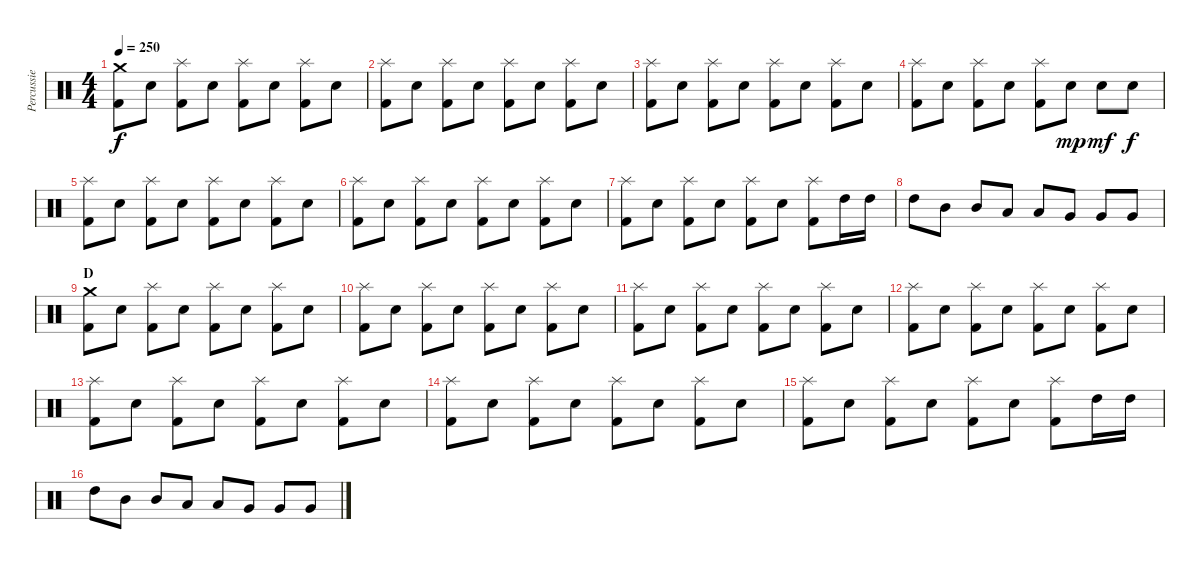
\track ("Percussie" "Percussie") {instrument percussion}
\staff {score}
\articulation defaults
\ts (4 4)
\tempo 250
\clef neutral
\ks c
("Crash medium (hit)" "Kick (hit) 2").8{dy f} "Electric Snare (hit)".8 ("Splash (hit)" "Kick (hit) 2").8 "Electric Snare (hit)".8 ("Splash (hit)" "Kick (hit) 2").8 "Electric Snare (hit)".8 ("Splash (hit)" "Kick (hit) 2").8 "Electric Snare (hit)".8 |
("Splash (hit)" "Kick (hit) 2").8 "Electric Snare (hit)".8 ("Splash (hit)" "Kick (hit) 2").8 "Electric Snare (hit)".8 ("Splash (hit)" "Kick (hit) 2").8 "Electric Snare (hit)".8 ("Splash (hit)" "Kick (hit) 2").8 "Electric Snare (hit)".8 |
("Splash (hit)" "Kick (hit) 2").8 "Electric Snare (hit)".8 ("Splash (hit)" "Kick (hit) 2").8 "Electric Snare (hit)".8 ("Splash (hit)" "Kick (hit) 2").8 "Electric Snare (hit)".8 ("Splash (hit)" "Kick (hit) 2").8 "Electric Snare (hit)".8 |
("Splash (hit)" "Kick (hit) 2").8 "Electric Snare (hit)".8 ("Splash (hit)" "Kick (hit) 2").8 "Electric Snare (hit)".8 ("Splash (hit)" "Kick (hit) 2").8 "Electric Snare (hit)".8{dy mp} "Electric Snare (hit)".8{dy mf} "Electric Snare (hit)".8{dy f} |
("Splash (hit)" "Kick (hit) 2").8 "Electric Snare (hit)".8 ("Splash (hit)" "Kick (hit) 2").8 "Electric Snare (hit)".8 ("Splash (hit)" "Kick (hit) 2").8 "Electric Snare (hit)".8 ("Splash (hit)" "Kick (hit) 2").8 "Electric Snare (hit)".8 |
("Splash (hit)" "Kick (hit) 2").8 "Electric Snare (hit)".8 ("Splash (hit)" "Kick (hit) 2").8 "Electric Snare (hit)".8 ("Splash (hit)" "Kick (hit) 2").8 "Electric Snare (hit)".8 ("Splash (hit)" "Kick (hit) 2").8 "Electric Snare (hit)".8 |
("Splash (hit)" "Kick (hit) 2").8 "Electric Snare (hit)".8 ("Splash (hit)" "Kick (hit) 2").8 "Electric Snare (hit)".8 ("Splash (hit)" "Kick (hit) 2").8 "Electric Snare (hit)".8 ("Splash (hit)" "Kick (hit) 2").8 "High Tom (hit)".16 "High Tom (hit)".16 |
"High Tom (hit)".8 "Mid Tom (hit)".8 "Mid Tom (hit)".8 "Low Tom (hit)".8 "Low Tom (hit)".8 "Very Low Tom (hit)".8 "Very Low Tom (hit)".8 "Very Low Tom (hit)".8 |
\section ("" "D")
("Crash medium (hit)" "Kick (hit) 2").8 "Electric Snare (hit)".8 ("Splash (hit)" "Kick (hit) 2").8 "Electric Snare (hit)".8 ("Splash (hit)" "Kick (hit) 2").8 "Electric Snare (hit)".8 ("Splash (hit)" "Kick (hit) 2").8 "Electric Snare (hit)".8 |
("Splash (hit)" "Kick (hit) 2").8 "Electric Snare (hit)".8 ("Splash (hit)" "Kick (hit) 2").8 "Electric Snare (hit)".8 ("Splash (hit)" "Kick (hit) 2").8 "Electric Snare (hit)".8 ("Splash (hit)" "Kick (hit) 2").8 "Electric Snare (hit)".8 |
("Splash (hit)" "Kick (hit) 2").8 "Electric Snare (hit)".8 ("Splash (hit)" "Kick (hit) 2").8 "Electric Snare (hit)".8 ("Splash (hit)" "Kick (hit) 2").8 "Electric Snare (hit)".8 ("Splash (hit)" "Kick (hit) 2").8 "Electric Snare (hit)".8 |
("Splash (hit)" "Kick (hit) 2").8 "Electric Snare (hit)".8 ("Splash (hit)" "Kick (hit) 2").8 "Electric Snare (hit)".8 ("Splash (hit)" "Kick (hit) 2").8 "Electric Snare (hit)".8 ("Splash (hit)" "Kick (hit) 2").8 "Electric Snare (hit)".8 |
("Splash (hit)" "Kick (hit) 2").8 "Electric Snare (hit)".8 ("Splash (hit)" "Kick (hit) 2").8 "Electric Snare (hit)".8 ("Splash (hit)" "Kick (hit) 2").8 "Electric Snare (hit)".8 ("Splash (hit)" "Kick (hit) 2").8 "Electric Snare (hit)".8 |
("Splash (hit)" "Kick (hit) 2").8 "Electric Snare (hit)".8 ("Splash (hit)" "Kick (hit) 2").8 "Electric Snare (hit)".8 ("Splash (hit)" "Kick (hit) 2").8 "Electric Snare (hit)".8 ("Splash (hit)" "Kick (hit) 2").8 "Electric Snare (hit)".8 |
("Splash (hit)" "Kick (hit) 2").8 "Electric Snare (hit)".8 ("Splash (hit)" "Kick (hit) 2").8 "Electric Snare (hit)".8 ("Splash (hit)" "Kick (hit) 2").8 "Electric Snare (hit)".8 ("Splash (hit)" "Kick (hit) 2").8 "High Tom (hit)".16 "High Tom (hit)".16 |
"High Tom (hit)".8 "Mid Tom (hit)".8 "Mid Tom (hit)".8 "Low Tom (hit)".8 "Low Tom (hit)".8 "Very Low Tom (hit)".8 "Very Low Tom (hit)".8 "Very Low Tom (hit)".8
